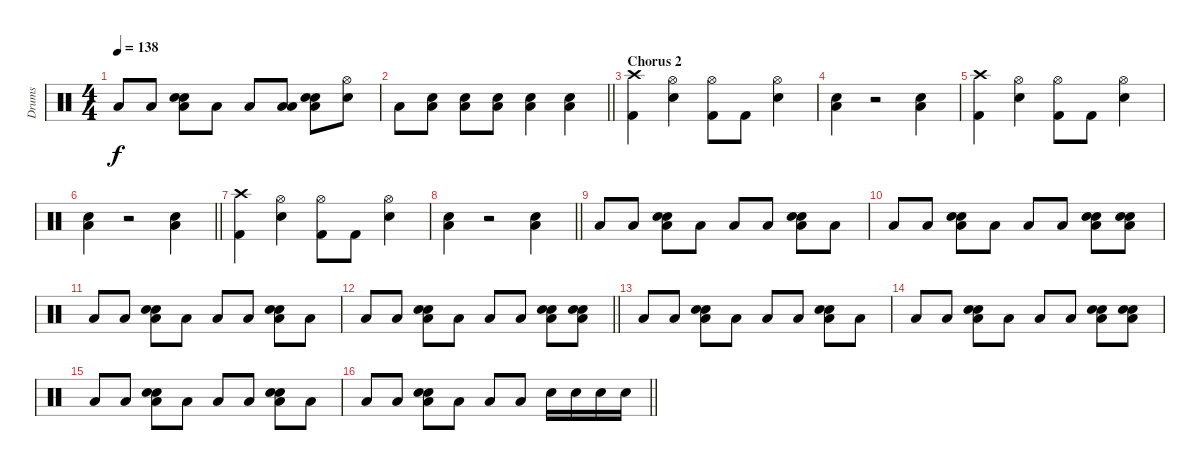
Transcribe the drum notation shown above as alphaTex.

\track ("Drums" "Drums") {instrument percussion}
\staff {score}
\articulation defaults
\ts (4 4)
\tempo 138
\clef neutral
\ks c "Low Floor Tom (hit)".8{dy f} "Low Floor Tom (hit)".8
("Snare (hit) 2" "Hand Clap (hit)" "Low Floor Tom (hit)").8 "Low Floor Tom (hit)".8 "Low Floor Tom (hit)".8 ("Low Tom (hit)" "Low Floor Tom (hit)").8 ("Snare (hit) 2" "Hand Clap (hit)" "Low Floor Tom (hit)").8 ("Hi-Hat (open)" "Snare (hit) 2").8 |
\barLineRight lightlight "Low Floor Tom (hit)".8
("Snare (hit) 2" "Low Floor Tom (hit)").8 ("Snare (hit) 2" "Low Floor Tom (hit)").8 ("Snare (hit) 2" "Low Floor Tom (hit)").8 ("Snare (hit) 2" "Low Floor Tom (hit)").4 ("Snare (hit) 2" "Low Floor Tom (hit)").4 |
\section ("" "Chorus 2")
("Crash high (hit)" "Kick (hit) 2").4 ("Hi-Hat (open)" "Snare (hit) 2").4 ("Hi-Hat (open)" "Kick (hit) 2").8 "Kick (hit) 2".8 ("Hi-Hat (open)" "Snare (hit) 2").4 |
("Snare (hit) 2" "Low Floor Tom (hit)").4 r.2 ("Snare (hit) 2" "Low Floor Tom (hit)").4 |
("Crash high (hit)" "Kick (hit) 2").4 ("Hi-Hat (open)" "Snare (hit) 2").4 ("Hi-Hat (open)" "Kick (hit) 2").8 "Kick (hit) 2".8 ("Hi-Hat (open)" "Snare (hit) 2").4 |
\barLineRight lightlight
("Snare (hit) 2" "Low Floor Tom (hit)").4 r.2 ("Snare (hit) 2" "Low Floor Tom (hit)").4 |
("Crash high (hit)" "Kick (hit) 2").4 ("Hi-Hat (open)" "Snare (hit) 2").4 ("Hi-Hat (open)" "Kick (hit) 2").8 "Kick (hit) 2".8 ("Hi-Hat (open)" "Snare (hit) 2").4 |
\barLineRight lightlight
("Snare (hit) 2" "Low Floor Tom (hit)").4 r.2 ("Snare (hit) 2" "Low Floor Tom (hit)").4 |
"Low Floor Tom (hit)".8 "Low Floor Tom (hit)".8 ("Snare (hit) 2" "Hand Clap (hit)" "Low Floor Tom (hit)").8 "Low Floor Tom (hit)".8 "Low Floor Tom (hit)".8 "Low Floor Tom (hit)".8 ("Snare (hit) 2" "Hand Clap (hit)" "Low Floor Tom (hit)").8 "Low Floor Tom (hit)".8 |
"Low Floor Tom (hit)".8 "Low Floor Tom (hit)".8 ("Snare (hit) 2" "Hand Clap (hit)" "Low Floor Tom (hit)").8 "Low Floor Tom (hit)".8 "Low Floor Tom (hit)".8 "Low Floor Tom (hit)".8 ("Snare (hit) 2" "Hand Clap (hit)" "Low Floor Tom (hit)").8 ("Snare (hit) 2" "Hand Clap (hit)" "Low Floor Tom (hit)").8 |
"Low Floor Tom (hit)".8 "Low Floor Tom (hit)".8 ("Snare (hit) 2" "Hand Clap (hit)" "Low Floor Tom (hit)").8 "Low Floor Tom (hit)".8 "Low Floor Tom (hit)".8 "Low Floor Tom (hit)".8 ("Snare (hit) 2" "Hand Clap (hit)" "Low Floor Tom (hit)").8 "Low Floor Tom (hit)".8 |
\barLineRight lightlight "Low Floor Tom (hit)".8 "Low Floor Tom (hit)".8
("Snare (hit) 2" "Hand Clap (hit)" "Low Floor Tom (hit)").8 "Low Floor Tom (hit)".8 "Low Floor Tom (hit)".8 "Low Floor Tom (hit)".8 ("Snare (hit) 2" "Hand Clap (hit)" "Low Floor Tom (hit)").8 ("Snare (hit) 2" "Hand Clap (hit)" "Low Floor Tom (hit)").8 |
"Low Floor Tom (hit)".8 "Low Floor Tom (hit)".8 ("Snare (hit) 2" "Hand Clap (hit)" "Low Floor Tom (hit)").8 "Low Floor Tom (hit)".8 "Low Floor Tom (hit)".8 "Low Floor Tom (hit)".8 ("Snare (hit) 2" "Hand Clap (hit)" "Low Floor Tom (hit)").8 "Low Floor Tom (hit)".8 |
"Low Floor Tom (hit)".8 "Low Floor Tom (hit)".8 ("Snare (hit) 2" "Hand Clap (hit)" "Low Floor Tom (hit)").8 "Low Floor Tom (hit)".8 "Low Floor Tom (hit)".8 "Low Floor Tom (hit)".8 ("Snare (hit) 2" "Hand Clap (hit)" "Low Floor Tom (hit)").8 ("Snare (hit) 2" "Hand Clap (hit)" "Low Floor Tom (hit)").8 |
"Low Floor Tom (hit)".8 "Low Floor Tom (hit)".8 ("Snare (hit) 2" "Hand Clap (hit)" "Low Floor Tom (hit)").8 "Low Floor Tom (hit)".8 "Low Floor Tom (hit)".8 "Low Floor Tom (hit)".8 ("Snare (hit) 2" "Hand Clap (hit)" "Low Floor Tom (hit)").8 "Low Floor Tom (hit)".8 |
\barLineRight lightlight "Low Floor Tom (hit)".8 "Low Floor Tom (hit)".8
("Snare (hit) 2" "Hand Clap (hit)" "Low Floor Tom (hit)").8 "Low Floor Tom (hit)".8 "Low Floor Tom (hit)".8 "Low Floor Tom (hit)".8 "Snare (hit) 2".16 "Snare (hit) 2".16 "Snare (hit) 2".16 "Snare (hit) 2".16
